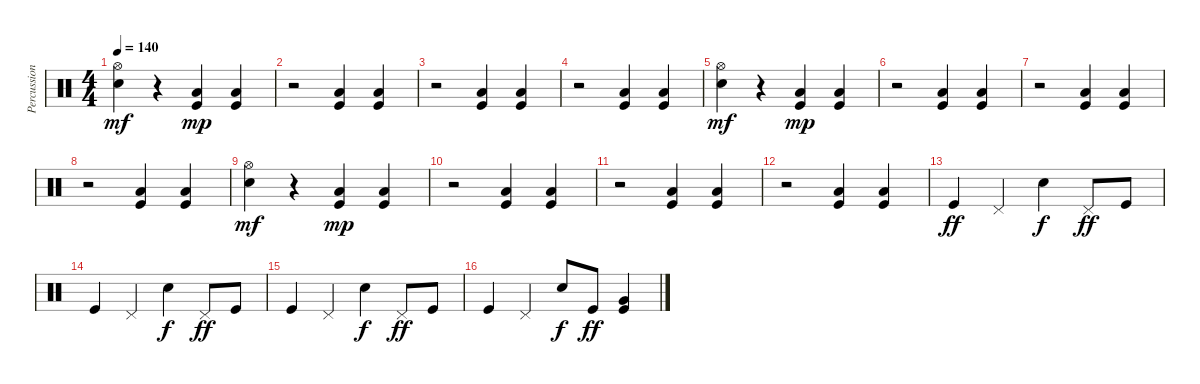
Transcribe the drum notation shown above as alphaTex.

\track ("Percussion" "Percussion") {instrument percussion}
\staff {score}
\articulation defaults
\ts (4 4)
\tempo 140
\clef neutral
\ks c
("Hi-Hat (open)" "Snare (hit) 2").4{dy mf} r.4 ("Kick (hit)" "Low Tom (hit)").4{dy mp} ("Kick (hit)" "Low Tom (hit)").4 |
r.2 ("Kick (hit)" "Low Tom (hit)").4 ("Kick (hit)" "Low Tom (hit)").4 |
r.2 ("Kick (hit)" "Low Tom (hit)").4 ("Kick (hit)" "Low Tom (hit)").4 |
r.2 ("Kick (hit)" "Low Tom (hit)").4 ("Kick (hit)" "Low Tom (hit)").4 |
("Hi-Hat (open)" "Snare (hit) 2").4{dy mf} r.4 ("Kick (hit)" "Low Tom (hit)").4{dy mp} ("Kick (hit)" "Low Tom (hit)").4 |
r.2 ("Kick (hit)" "Low Tom (hit)").4 ("Kick (hit)" "Low Tom (hit)").4 |
r.2 ("Kick (hit)" "Low Tom (hit)").4 ("Kick (hit)" "Low Tom (hit)").4 |
r.2 ("Kick (hit)" "Low Tom (hit)").4 ("Kick (hit)" "Low Tom (hit)").4 |
("Hi-Hat (open)" "Snare (hit) 2").4{dy mf} r.4 ("Kick (hit)" "Low Tom (hit)").4{dy mp} ("Kick (hit)" "Low Tom (hit)").4 |
r.2 ("Kick (hit)" "Low Tom (hit)").4 ("Kick (hit)" "Low Tom (hit)").4 |
r.2 ("Kick (hit)" "Low Tom (hit)").4 ("Kick (hit)" "Low Tom (hit)").4 |
r.2 ("Kick (hit)" "Low Tom (hit)").4 ("Kick (hit)" "Low Tom (hit)").4 |
"Kick (hit)".4{dy ff} "Pedal Hi-Hat (hit)".4 "Snare (hit) 2".4{dy f} "Pedal Hi-Hat (hit)".8{dy ff} "Kick (hit)".8 |
"Kick (hit)".4 "Pedal Hi-Hat (hit)".4 "Snare (hit) 2".4{dy f} "Pedal Hi-Hat (hit)".8{dy ff} "Kick (hit)".8 |
"Kick (hit)".4 "Pedal Hi-Hat (hit)".4 "Snare (hit) 2".4{dy f} "Pedal Hi-Hat (hit)".8{dy ff} "Kick (hit)".8 |
"Kick (hit)".4 "Pedal Hi-Hat (hit)".4 "Snare (hit) 2".8{dy f} "Kick (hit)".8{dy ff} ("Kick (hit)" "Very Low Tom (hit)").4
